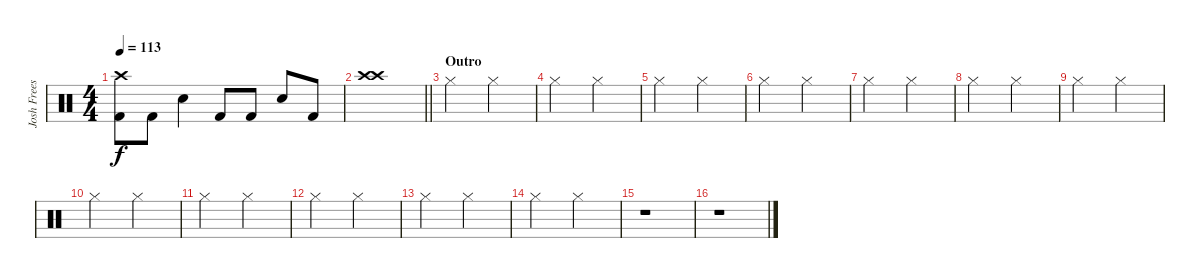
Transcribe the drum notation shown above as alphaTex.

\track ("Josh Freese (Studio Drummer)" "Josh Frees") {instrument percussion}
\staff {score}
\articulation defaults
\ts (4 4)
\tempo 113
\clef neutral
\ks c
("Crash high (hit)" "Kick (hit) 2").8{dy f} "Kick (hit) 2".8 "Electric Snare (hit)".4 "Kick (hit) 2".8 "Kick (hit) 2".8 "Electric Snare (hit)".8 "Kick (hit) 2".8 |
\barLineRight lightlight
("Crash high (hit)" "Crash high (hit)").1 |
\section ("" "Outro")
"Hi-Hat (closed)".2 "Hi-Hat (closed)".2 |
"Hi-Hat (closed)".2 "Hi-Hat (closed)".2 |
"Hi-Hat (closed)".2 "Hi-Hat (closed)".2 |
"Hi-Hat (closed)".2 "Hi-Hat (closed)".2 |
"Hi-Hat (closed)".2 "Hi-Hat (closed)".2 |
"Hi-Hat (closed)".2 "Hi-Hat (closed)".2 |
"Hi-Hat (closed)".2 "Hi-Hat (closed)".2 |
"Hi-Hat (closed)".2 "Hi-Hat (closed)".2 |
"Hi-Hat (closed)".2 "Hi-Hat (closed)".2 |
"Hi-Hat (closed)".2 "Hi-Hat (closed)".2 |
"Hi-Hat (closed)".2 "Hi-Hat (closed)".2 |
"Hi-Hat (closed)".2 "Hi-Hat (closed)".2 |
r.1 |
r.1
